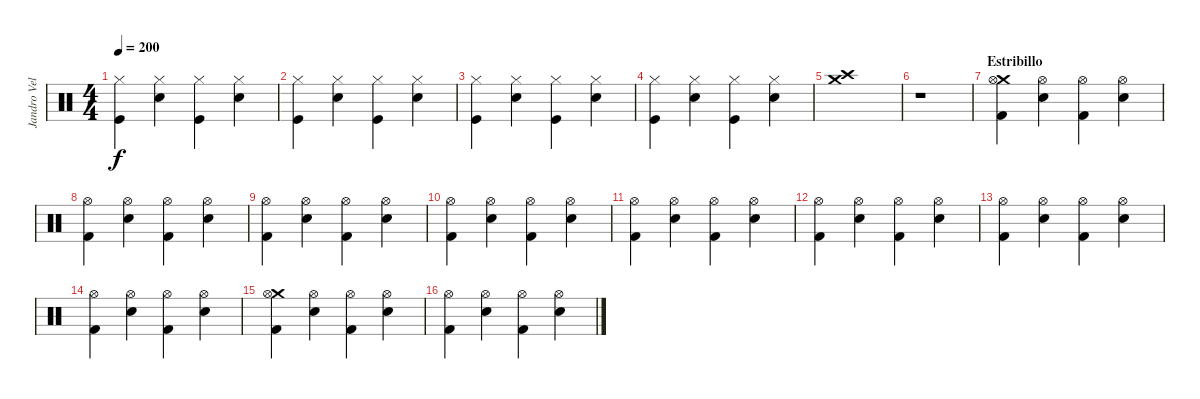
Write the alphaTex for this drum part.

\track ("Jandro Velázquez" "Jandro Vel") {instrument percussion}
\staff {score}
\articulation defaults
\ts (4 4)
\tempo 200
\clef neutral
\ks c
("Hi-Hat (closed)" "Kick (hit)").4{dy f} ("Hi-Hat (closed)" "Snare (hit) 2").4 ("Hi-Hat (closed)" "Kick (hit)").4 ("Hi-Hat (closed)" "Snare (hit) 2").4 |
("Hi-Hat (closed)" "Kick (hit)").4 ("Hi-Hat (closed)" "Snare (hit) 2").4 ("Hi-Hat (closed)" "Kick (hit)").4 ("Hi-Hat (closed)" "Snare (hit) 2").4 |
("Hi-Hat (closed)" "Kick (hit)").4 ("Hi-Hat (closed)" "Snare (hit) 2").4 ("Hi-Hat (closed)" "Kick (hit)").4 ("Hi-Hat (closed)" "Snare (hit) 2").4 |
("Hi-Hat (closed)" "Kick (hit)").4 ("Hi-Hat (closed)" "Snare (hit) 2").4 ("Hi-Hat (closed)" "Kick (hit)").4 ("Hi-Hat (closed)" "Snare (hit) 2").4 |
("Crash high (hit)" "Crash medium (hit)").1 |
r.1 |
\section ("" "Estribillo")
("Crash medium (hit)" "Hi-Hat (open)" "Kick (hit) 2").4 ("Hi-Hat (open)" "Snare (hit) 2").4 ("Hi-Hat (open)" "Kick (hit) 2").4 ("Hi-Hat (open)" "Snare (hit) 2").4 |
("Hi-Hat (open)" "Kick (hit) 2").4 ("Hi-Hat (open)" "Snare (hit) 2").4 ("Hi-Hat (open)" "Kick (hit) 2").4 ("Hi-Hat (open)" "Snare (hit) 2").4 |
("Hi-Hat (open)" "Kick (hit) 2").4 ("Hi-Hat (open)" "Snare (hit) 2").4 ("Hi-Hat (open)" "Kick (hit) 2").4 ("Hi-Hat (open)" "Snare (hit) 2").4 |
("Hi-Hat (open)" "Kick (hit) 2").4 ("Hi-Hat (open)" "Snare (hit) 2").4 ("Hi-Hat (open)" "Kick (hit) 2").4 ("Hi-Hat (open)" "Snare (hit) 2").4 |
("Hi-Hat (open)" "Kick (hit) 2").4 ("Hi-Hat (open)" "Snare (hit) 2").4 ("Hi-Hat (open)" "Kick (hit) 2").4 ("Hi-Hat (open)" "Snare (hit) 2").4 |
("Hi-Hat (open)" "Kick (hit) 2").4 ("Hi-Hat (open)" "Snare (hit) 2").4 ("Hi-Hat (open)" "Kick (hit) 2").4 ("Hi-Hat (open)" "Snare (hit) 2").4 |
("Hi-Hat (open)" "Kick (hit) 2").4 ("Hi-Hat (open)" "Snare (hit) 2").4 ("Hi-Hat (open)" "Kick (hit) 2").4 ("Hi-Hat (open)" "Snare (hit) 2").4 |
("Hi-Hat (open)" "Kick (hit) 2").4 ("Hi-Hat (open)" "Snare (hit) 2").4 ("Hi-Hat (open)" "Kick (hit) 2").4 ("Hi-Hat (open)" "Snare (hit) 2").4 |
("Crash medium (hit)" "Hi-Hat (open)" "Kick (hit) 2").4 ("Hi-Hat (open)" "Snare (hit) 2").4 ("Hi-Hat (open)" "Kick (hit) 2").4 ("Hi-Hat (open)" "Snare (hit) 2").4 |
("Hi-Hat (open)" "Kick (hit) 2").4 ("Hi-Hat (open)" "Snare (hit) 2").4 ("Hi-Hat (open)" "Kick (hit) 2").4 ("Hi-Hat (open)" "Snare (hit) 2").4
